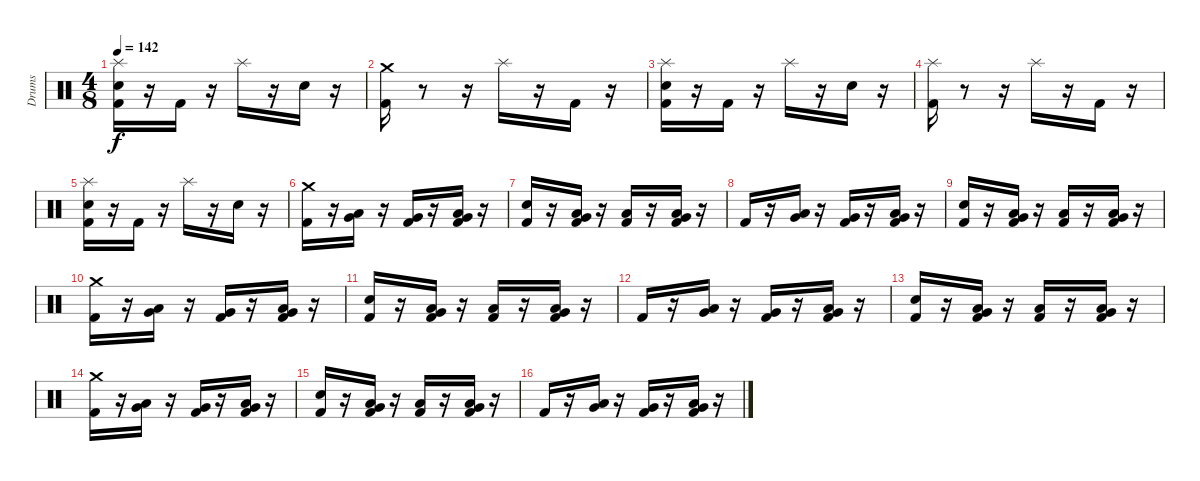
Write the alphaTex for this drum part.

\track ("Drums" "Drums") {instrument percussion}
\staff {score}
\articulation defaults
\ts (4 8)
\tempo 142
\clef neutral
\ks c
("Electric Snare (hit)" "Kick (hit) 2" "Splash (hit)").16{dy f} r.16 "Kick (hit) 2".16 r.16 "Splash (hit)".16 r.16 "Electric Snare (hit)".16 r.16 |
("Kick (hit) 2" "Crash medium (hit)").16 r.8 r.16 "Splash (hit)".16 r.16 "Kick (hit) 2".16 r.16 |
("Electric Snare (hit)" "Kick (hit) 2" "Splash (hit)").16 r.16 "Kick (hit) 2".16 r.16 "Splash (hit)".16 r.16 "Electric Snare (hit)".16 r.16 |
("Kick (hit) 2" "Splash (hit)").16 r.8 r.16 "Splash (hit)".16 r.16 "Kick (hit) 2".16 r.16 |
("Electric Snare (hit)" "Kick (hit) 2" "Splash (hit)").16 r.16 "Kick (hit) 2".16 r.16 "Splash (hit)".16 r.16 "Electric Snare (hit)".16 r.16 |
("Kick (hit) 2" "Crash medium (hit)").16 r.16 ("Low Tom (hit)" "Very Low Tom (hit)").16 r.16 ("Kick (hit) 2" "Very Low Tom (hit)").16 r.16 ("Kick (hit) 2" "Very Low Tom (hit)" "Low Floor Tom (hit)").16 r.16 |
("Electric Snare (hit)" "Kick (hit) 2").16 r.16 ("Kick (hit) 2" "Low Floor Tom (hit)" "Very Low Tom (hit)").16 r.16 ("Kick (hit) 2" "Low Floor Tom (hit)").16 r.16 ("Kick (hit) 2" "Low Floor Tom (hit)" "Very Low Tom (hit)").16 r.16 |
"Kick (hit) 2".16 r.16 ("Low Tom (hit)" "Very Low Tom (hit)").16 r.16 ("Kick (hit) 2" "Very Low Tom (hit)").16 r.16 ("Kick (hit) 2" "Very Low Tom (hit)" "Low Floor Tom (hit)").16 r.16 |
("Electric Snare (hit)" "Kick (hit) 2").16 r.16 ("Kick (hit) 2" "Low Floor Tom (hit)" "Very Low Tom (hit)").16 r.16 ("Kick (hit) 2" "Low Floor Tom (hit)").16 r.16 ("Kick (hit) 2" "Low Floor Tom (hit)" "Very Low Tom (hit)").16 r.16 |
("Kick (hit) 2" "Crash medium (hit)").16 r.16 ("Low Tom (hit)" "Very Low Tom (hit)").16 r.16 ("Kick (hit) 2" "Very Low Tom (hit)").16 r.16 ("Kick (hit) 2" "Very Low Tom (hit)" "Low Floor Tom (hit)").16 r.16 |
("Electric Snare (hit)" "Kick (hit) 2").16 r.16 ("Kick (hit) 2" "Low Floor Tom (hit)" "Very Low Tom (hit)").16 r.16 ("Kick (hit) 2" "Low Floor Tom (hit)").16 r.16 ("Kick (hit) 2" "Low Floor Tom (hit)" "Very Low Tom (hit)").16 r.16 |
"Kick (hit) 2".16 r.16 ("Low Tom (hit)" "Very Low Tom (hit)").16 r.16 ("Kick (hit) 2" "Very Low Tom (hit)").16 r.16 ("Kick (hit) 2" "Very Low Tom (hit)" "Low Floor Tom (hit)").16 r.16 |
("Electric Snare (hit)" "Kick (hit) 2").16 r.16 ("Kick (hit) 2" "Low Floor Tom (hit)" "Very Low Tom (hit)").16 r.16 ("Kick (hit) 2" "Low Floor Tom (hit)").16 r.16 ("Kick (hit) 2" "Low Floor Tom (hit)" "Very Low Tom (hit)").16 r.16 |
("Kick (hit) 2" "Crash medium (hit)").16 r.16 ("Low Tom (hit)" "Very Low Tom (hit)").16 r.16 ("Kick (hit) 2" "Very Low Tom (hit)").16 r.16 ("Kick (hit) 2" "Very Low Tom (hit)" "Low Floor Tom (hit)").16 r.16 |
("Electric Snare (hit)" "Kick (hit) 2").16 r.16 ("Kick (hit) 2" "Low Floor Tom (hit)" "Very Low Tom (hit)").16 r.16 ("Kick (hit) 2" "Low Floor Tom (hit)").16 r.16 ("Kick (hit) 2" "Low Floor Tom (hit)" "Very Low Tom (hit)").16 r.16 |
"Kick (hit) 2".16 r.16 ("Low Tom (hit)" "Very Low Tom (hit)").16 r.16 ("Kick (hit) 2" "Very Low Tom (hit)").16 r.16 ("Kick (hit) 2" "Very Low Tom (hit)" "Low Floor Tom (hit)").16 r.16
